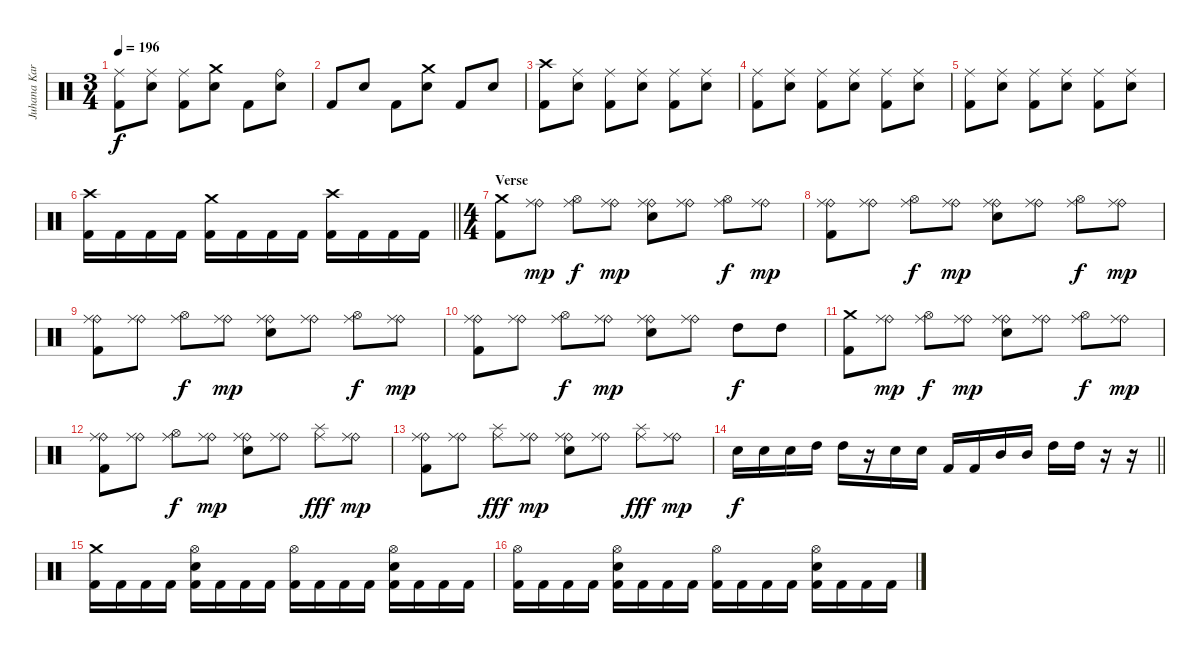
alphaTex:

\track ("Juhana Karlsson " "Juhana Kar") {instrument percussion}
\staff {score}
\articulation defaults
\ts (3 4)
\tempo 196
\clef neutral
\ks c
("Ride (middle)" "Kick (hit) 2").8{dy f} ("Ride (middle)" "Electric Snare (hit)").8 ("Ride (middle)" "Kick (hit) 2").8 ("Crash medium (hit)" "Electric Snare (hit)").8 "Kick (hit) 2".8 ("Ride (bell)" "Electric Snare (hit)").8 |
"Kick (hit) 2".8 "Electric Snare (hit)".8 "Kick (hit) 2".8 ("Crash medium (hit)" "Electric Snare (hit)").8 "Kick (hit) 2".8 "Electric Snare (hit)".8 |
("Crash high (hit)" "Kick (hit) 2").8 ("Ride (middle)" "Electric Snare (hit)").8 ("Ride (middle)" "Kick (hit) 2").8 ("Ride (middle)" "Electric Snare (hit)").8 ("Ride (middle)" "Kick (hit) 2").8 ("Ride (middle)" "Electric Snare (hit)").8 |
("Ride (middle)" "Kick (hit) 2").8 ("Ride (middle)" "Electric Snare (hit)").8 ("Ride (middle)" "Kick (hit) 2").8 ("Ride (middle)" "Electric Snare (hit)").8 ("Ride (middle)" "Kick (hit) 2").8 ("Ride (middle)" "Electric Snare (hit)").8 |
("Ride (middle)" "Kick (hit) 2").8 ("Ride (middle)" "Electric Snare (hit)").8 ("Ride (middle)" "Kick (hit) 2").8 ("Ride (middle)" "Electric Snare (hit)").8 ("Ride (middle)" "Kick (hit) 2").8 ("Ride (middle)" "Electric Snare (hit)").8 |
\barLineRight lightlight
("Crash high (hit)" "Kick (hit) 2").16 "Kick (hit) 2".16 "Kick (hit) 2".16 "Kick (hit) 2".16 ("Crash medium (hit)" "Kick (hit) 2").16 "Kick (hit) 2".16 "Kick (hit) 2".16 "Kick (hit) 2".16 ("Crash high (hit)" "Kick (hit) 2").16 "Kick (hit) 2".16 "Kick (hit) 2".16 "Kick (hit) 2".16 |
\ts (4 4)
\section ("" "Verse")
("Crash medium (hit)" "Kick (hit) 2").8 ("Ride (bell)" "Ride (middle)").8{dy mp} ("Ride (middle)" "Hi-Hat (open)").8{dy f} ("Ride (bell)" "Ride (middle)").8{dy mp} ("Ride (bell)" "Ride (middle)" "Electric Snare (hit)").8 ("Ride (bell)" "Ride (middle)").8 ("Ride (middle)" "Hi-Hat (open)").8{dy f} ("Ride (bell)" "Ride (middle)").8{dy mp} |
("Ride (bell)" "Ride (middle)" "Kick (hit) 2").8 ("Ride (bell)" "Ride (middle)").8 ("Ride (middle)" "Hi-Hat (open)").8{dy f} ("Ride (bell)" "Ride (middle)").8{dy mp} ("Ride (bell)" "Ride (middle)" "Electric Snare (hit)").8 ("Ride (bell)" "Ride (middle)").8 ("Ride (middle)" "Hi-Hat (open)").8{dy f} ("Ride (bell)" "Ride (middle)").8{dy mp} |
("Ride (bell)" "Ride (middle)" "Kick (hit) 2").8 ("Ride (bell)" "Ride (middle)").8 ("Ride (middle)" "Hi-Hat (open)").8{dy f} ("Ride (bell)" "Ride (middle)").8{dy mp} ("Ride (bell)" "Ride (middle)" "Electric Snare (hit)").8 ("Ride (bell)" "Ride (middle)").8 ("Ride (middle)" "Hi-Hat (open)").8{dy f} ("Ride (bell)" "Ride (middle)").8{dy mp} |
("Ride (bell)" "Ride (middle)" "Kick (hit) 2").8 ("Ride (bell)" "Ride (middle)").8 ("Ride (middle)" "Hi-Hat (open)").8{dy f} ("Ride (bell)" "Ride (middle)").8{dy mp} ("Ride (bell)" "Ride (middle)" "Electric Snare (hit)").8 ("Ride (bell)" "Ride (middle)").8 "High Tom (hit)".8{dy f} "High Tom (hit)".8 |
("Crash medium (hit)" "Kick (hit) 2").8 ("Ride (bell)" "Ride (middle)").8{dy mp} ("Ride (middle)" "Hi-Hat (open)").8{dy f} ("Ride (bell)" "Ride (middle)").8{dy mp} ("Ride (bell)" "Ride (middle)" "Electric Snare (hit)").8 ("Ride (bell)" "Ride (middle)").8 ("Ride (middle)" "Hi-Hat (open)").8{dy f} ("Ride (bell)" "Ride (middle)").8{dy mp} |
("Ride (bell)" "Ride (middle)" "Kick (hit) 2").8 ("Ride (bell)" "Ride (middle)").8 ("Ride (middle)" "Hi-Hat (open)").8{dy f} ("Ride (bell)" "Ride (middle)").8{dy mp} ("Ride (bell)" "Ride (middle)" "Electric Snare (hit)").8 ("Ride (bell)" "Ride (middle)").8 ("Ride (middle)" "Splash (hit)").8{dy fff} ("Ride (bell)" "Ride (middle)").8{dy mp} |
("Ride (bell)" "Ride (middle)" "Kick (hit) 2").8 ("Ride (bell)" "Ride (middle)").8 ("Ride (middle)" "Splash (hit)").8{dy fff} ("Ride (bell)" "Ride (middle)").8{dy mp} ("Ride (bell)" "Ride (middle)" "Electric Snare (hit)").8 ("Ride (bell)" "Ride (middle)").8 ("Ride (middle)" "Splash (hit)").8{dy fff} ("Ride (bell)" "Ride (middle)").8{dy mp} |
\barLineRight lightlight "Electric Snare (hit)".16{dy f} "Electric Snare (hit)".16 "Electric Snare (hit)".16 "High Tom (hit)".16 "High Tom (hit)".16
r.16 "Electric Snare (hit)".16 "Electric Snare (hit)".16 "Kick (hit) 2".16 "Kick (hit) 2".16 "Mid Tom (hit)".16 "Mid Tom (hit)".16 "High Tom (hit)".16 "High Tom (hit)".16 r.16 r.16 |
("Crash medium (hit)" "Kick (hit) 2").16 "Kick (hit) 2".16 "Kick (hit) 2".16 "Kick (hit) 2".16 ("Hi-Hat (open)" "Electric Snare (hit)" "Kick (hit) 2").16 "Kick (hit) 2".16 "Kick (hit) 2".16 "Kick (hit) 2".16 ("Hi-Hat (open)" "Kick (hit) 2").16 "Kick (hit) 2".16 "Kick (hit) 2".16 "Kick (hit) 2".16 ("Hi-Hat (open)" "Electric Snare (hit)" "Kick (hit) 2").16 "Kick (hit) 2".16 "Kick (hit) 2".16 "Kick (hit) 2".16 |
("Hi-Hat (open)" "Kick (hit) 2").16 "Kick (hit) 2".16 "Kick (hit) 2".16 "Kick (hit) 2".16 ("Hi-Hat (open)" "Electric Snare (hit)" "Kick (hit) 2").16 "Kick (hit) 2".16 "Kick (hit) 2".16 "Kick (hit) 2".16 ("Hi-Hat (open)" "Kick (hit) 2").16 "Kick (hit) 2".16 "Kick (hit) 2".16 "Kick (hit) 2".16 ("Hi-Hat (open)" "Electric Snare (hit)" "Kick (hit) 2").16 "Kick (hit) 2".16 "Kick (hit) 2".16 "Kick (hit) 2".16
